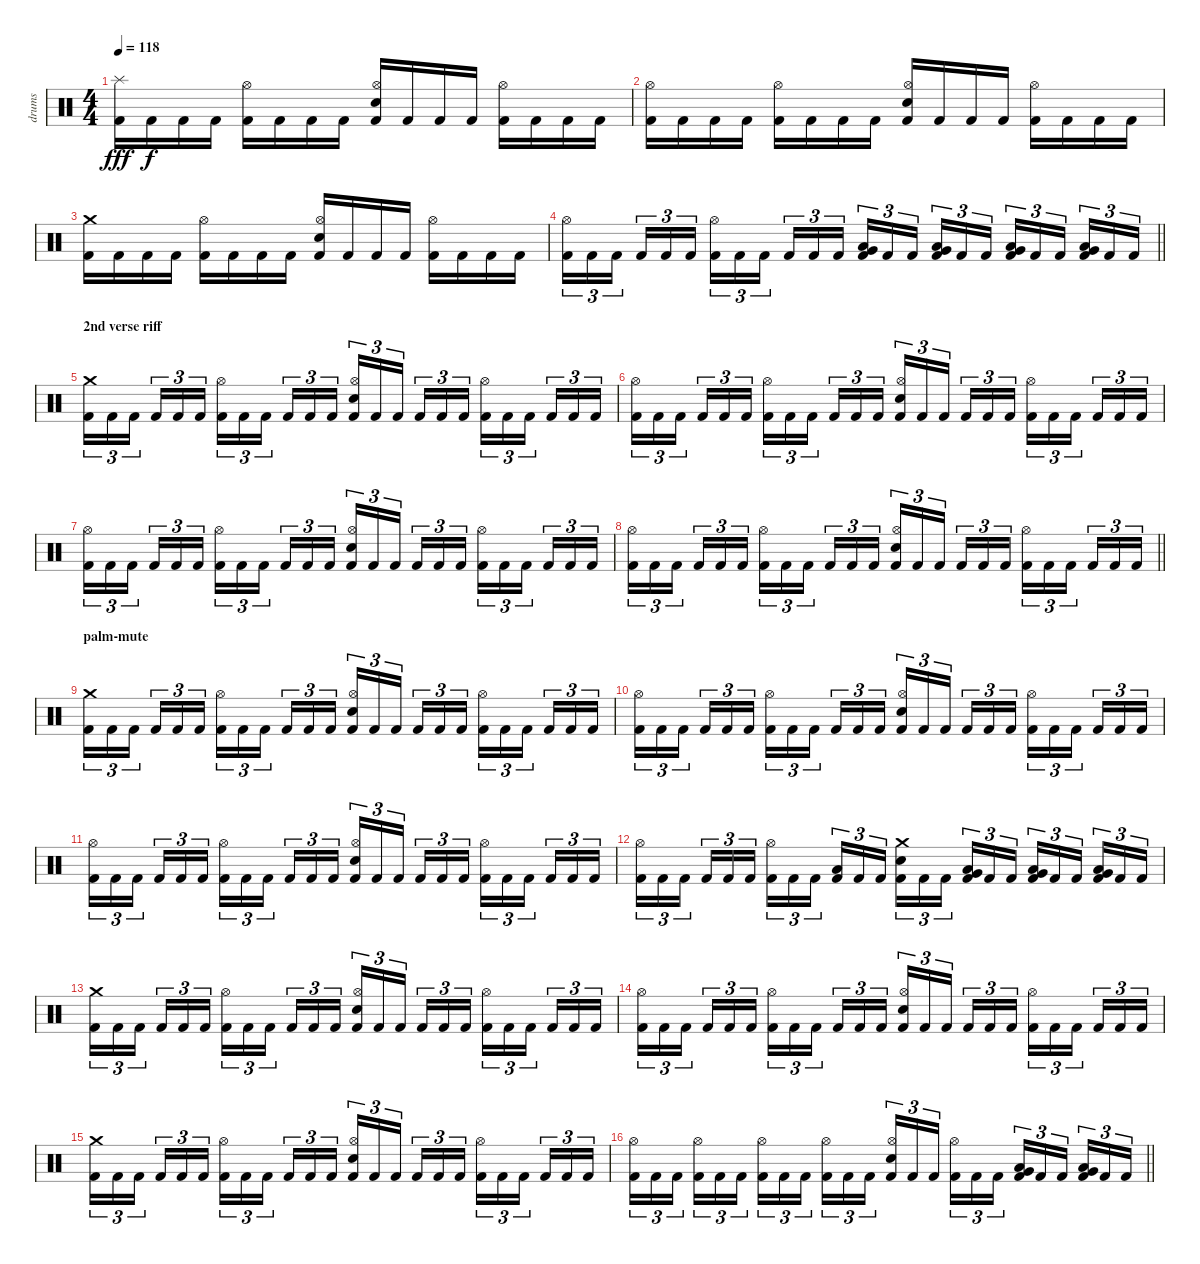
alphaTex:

\track ("drums" "drums") {instrument percussion}
\staff {score}
\articulation defaults
\ts (4 4)
\tempo 118
\clef neutral
\ks c
("Splash (hit)" "Kick (hit) 2").16{dy fff} "Kick (hit) 2".16{dy f} "Kick (hit) 2".16 "Kick (hit) 2".16 ("Hi-Hat (open)" "Kick (hit) 2").16 "Kick (hit) 2".16 "Kick (hit) 2".16 "Kick (hit) 2".16 ("Hi-Hat (open)" "Electric Snare (hit)" "Kick (hit) 2").16 "Kick (hit) 2".16 "Kick (hit) 2".16 "Kick (hit) 2".16 ("Hi-Hat (open)" "Kick (hit) 2").16 "Kick (hit) 2".16 "Kick (hit) 2".16 "Kick (hit) 2".16 |
("Hi-Hat (open)" "Kick (hit) 2").16 "Kick (hit) 2".16 "Kick (hit) 2".16 "Kick (hit) 2".16 ("Hi-Hat (open)" "Kick (hit) 2").16 "Kick (hit) 2".16 "Kick (hit) 2".16 "Kick (hit) 2".16 ("Hi-Hat (open)" "Electric Snare (hit)" "Kick (hit) 2").16 "Kick (hit) 2".16 "Kick (hit) 2".16 "Kick (hit) 2".16 ("Hi-Hat (open)" "Kick (hit) 2").16 "Kick (hit) 2".16 "Kick (hit) 2".16 "Kick (hit) 2".16 |
("Crash medium (hit)" "Kick (hit) 2").16 "Kick (hit) 2".16 "Kick (hit) 2".16 "Kick (hit) 2".16 ("Hi-Hat (open)" "Kick (hit) 2").16 "Kick (hit) 2".16 "Kick (hit) 2".16 "Kick (hit) 2".16 ("Hi-Hat (open)" "Electric Snare (hit)" "Kick (hit) 2").16 "Kick (hit) 2".16 "Kick (hit) 2".16 "Kick (hit) 2".16 ("Hi-Hat (open)" "Kick (hit) 2").16 "Kick (hit) 2".16 "Kick (hit) 2".16 "Kick (hit) 2".16 |
\barLineRight lightlight
("Hi-Hat (open)" "Kick (hit) 2").16{tu (3 2)} "Kick (hit) 2".16{tu (3 2)} "Kick (hit) 2".16{tu (3 2) beam splitsecondary} "Kick (hit) 2".16{tu (3 2)} "Kick (hit) 2".16{tu (3 2)} "Kick (hit) 2".16{tu (3 2)} ("Hi-Hat (open)" "Kick (hit) 2").16{tu (3 2)} "Kick (hit) 2".16{tu (3 2)} "Kick (hit) 2".16{tu (3 2) beam splitsecondary} "Kick (hit) 2".16{tu (3 2)} "Kick (hit) 2".16{tu (3 2)} "Kick (hit) 2".16{tu (3 2)} ("Low Tom (hit)" "Very Low Tom (hit)" "Kick (hit) 2").16{tu (3 2)} "Kick (hit) 2".16{tu (3 2)} "Kick (hit) 2".16{tu (3 2) beam splitsecondary} ("Low Tom (hit)" "Very Low Tom (hit)" "Kick (hit) 2").16{tu (3 2)} "Kick (hit) 2".16{tu (3 2)} "Kick (hit) 2".16{tu (3 2)} ("Low Tom (hit)" "Very Low Tom (hit)" "Kick (hit) 2").16{tu (3 2)} "Kick (hit) 2".16{tu (3 2)} "Kick (hit) 2".16{tu (3 2) beam splitsecondary} ("Low Tom (hit)" "Very Low Tom (hit)" "Kick (hit) 2").16{tu (3 2)} "Kick (hit) 2".16{tu (3 2)} "Kick (hit) 2".16{tu (3 2)} |
\section ("" "2nd verse riff")
("Crash medium (hit)" "Kick (hit) 2").16{tu (3 2)} "Kick (hit) 2".16{tu (3 2)} "Kick (hit) 2".16{tu (3 2) beam splitsecondary} "Kick (hit) 2".16{tu (3 2)} "Kick (hit) 2".16{tu (3 2)} "Kick (hit) 2".16{tu (3 2)} ("Hi-Hat (open)" "Kick (hit) 2").16{tu (3 2)} "Kick (hit) 2".16{tu (3 2)} "Kick (hit) 2".16{tu (3 2) beam splitsecondary} "Kick (hit) 2".16{tu (3 2)} "Kick (hit) 2".16{tu (3 2)} "Kick (hit) 2".16{tu (3 2)} ("Hi-Hat (open)" "Electric Snare (hit)" "Kick (hit) 2").16{tu (3 2)} "Kick (hit) 2".16{tu (3 2)} "Kick (hit) 2".16{tu (3 2) beam splitsecondary} "Kick (hit) 2".16{tu (3 2)} "Kick (hit) 2".16{tu (3 2)} "Kick (hit) 2".16{tu (3 2)} ("Hi-Hat (open)" "Kick (hit) 2").16{tu (3 2)} "Kick (hit) 2".16{tu (3 2)} "Kick (hit) 2".16{tu (3 2) beam splitsecondary} "Kick (hit) 2".16{tu (3 2)} "Kick (hit) 2".16{tu (3 2)} "Kick (hit) 2".16{tu (3 2)} |
("Hi-Hat (open)" "Kick (hit) 2").16{tu (3 2)} "Kick (hit) 2".16{tu (3 2)} "Kick (hit) 2".16{tu (3 2) beam splitsecondary} "Kick (hit) 2".16{tu (3 2)} "Kick (hit) 2".16{tu (3 2)} "Kick (hit) 2".16{tu (3 2)} ("Hi-Hat (open)" "Kick (hit) 2").16{tu (3 2)} "Kick (hit) 2".16{tu (3 2)} "Kick (hit) 2".16{tu (3 2) beam splitsecondary} "Kick (hit) 2".16{tu (3 2)} "Kick (hit) 2".16{tu (3 2)} "Kick (hit) 2".16{tu (3 2)} ("Hi-Hat (open)" "Electric Snare (hit)" "Kick (hit) 2").16{tu (3 2)} "Kick (hit) 2".16{tu (3 2)} "Kick (hit) 2".16{tu (3 2) beam splitsecondary} "Kick (hit) 2".16{tu (3 2)} "Kick (hit) 2".16{tu (3 2)} "Kick (hit) 2".16{tu (3 2)} ("Hi-Hat (open)" "Kick (hit) 2").16{tu (3 2)} "Kick (hit) 2".16{tu (3 2)} "Kick (hit) 2".16{tu (3 2) beam splitsecondary} "Kick (hit) 2".16{tu (3 2)} "Kick (hit) 2".16{tu (3 2)} "Kick (hit) 2".16{tu (3 2)} |
("Hi-Hat (open)" "Kick (hit) 2").16{tu (3 2)} "Kick (hit) 2".16{tu (3 2)} "Kick (hit) 2".16{tu (3 2) beam splitsecondary} "Kick (hit) 2".16{tu (3 2)} "Kick (hit) 2".16{tu (3 2)} "Kick (hit) 2".16{tu (3 2)} ("Hi-Hat (open)" "Kick (hit) 2").16{tu (3 2)} "Kick (hit) 2".16{tu (3 2)} "Kick (hit) 2".16{tu (3 2) beam splitsecondary} "Kick (hit) 2".16{tu (3 2)} "Kick (hit) 2".16{tu (3 2)} "Kick (hit) 2".16{tu (3 2)} ("Hi-Hat (open)" "Electric Snare (hit)" "Kick (hit) 2").16{tu (3 2)} "Kick (hit) 2".16{tu (3 2)} "Kick (hit) 2".16{tu (3 2) beam splitsecondary} "Kick (hit) 2".16{tu (3 2)} "Kick (hit) 2".16{tu (3 2)} "Kick (hit) 2".16{tu (3 2)} ("Hi-Hat (open)" "Kick (hit) 2").16{tu (3 2)} "Kick (hit) 2".16{tu (3 2)} "Kick (hit) 2".16{tu (3 2) beam splitsecondary} "Kick (hit) 2".16{tu (3 2)} "Kick (hit) 2".16{tu (3 2)} "Kick (hit) 2".16{tu (3 2)} |
\barLineRight lightlight
("Hi-Hat (open)" "Kick (hit) 2").16{tu (3 2)} "Kick (hit) 2".16{tu (3 2)} "Kick (hit) 2".16{tu (3 2) beam splitsecondary} "Kick (hit) 2".16{tu (3 2)} "Kick (hit) 2".16{tu (3 2)} "Kick (hit) 2".16{tu (3 2)} ("Hi-Hat (open)" "Kick (hit) 2").16{tu (3 2)} "Kick (hit) 2".16{tu (3 2)} "Kick (hit) 2".16{tu (3 2) beam splitsecondary} "Kick (hit) 2".16{tu (3 2)} "Kick (hit) 2".16{tu (3 2)} "Kick (hit) 2".16{tu (3 2)} ("Hi-Hat (open)" "Electric Snare (hit)" "Kick (hit) 2").16{tu (3 2)} "Kick (hit) 2".16{tu (3 2)} "Kick (hit) 2".16{tu (3 2) beam splitsecondary} "Kick (hit) 2".16{tu (3 2)} "Kick (hit) 2".16{tu (3 2)} "Kick (hit) 2".16{tu (3 2)} ("Hi-Hat (open)" "Kick (hit) 2").16{tu (3 2)} "Kick (hit) 2".16{tu (3 2)} "Kick (hit) 2".16{tu (3 2) beam splitsecondary} "Kick (hit) 2".16{tu (3 2)} "Kick (hit) 2".16{tu (3 2)} "Kick (hit) 2".16{tu (3 2)} |
\section ("" "palm-mute")
("Crash medium (hit)" "Kick (hit) 2").16{tu (3 2)} "Kick (hit) 2".16{tu (3 2)} "Kick (hit) 2".16{tu (3 2) beam splitsecondary} "Kick (hit) 2".16{tu (3 2)} "Kick (hit) 2".16{tu (3 2)} "Kick (hit) 2".16{tu (3 2)} ("Hi-Hat (open)" "Kick (hit) 2").16{tu (3 2)} "Kick (hit) 2".16{tu (3 2)} "Kick (hit) 2".16{tu (3 2) beam splitsecondary} "Kick (hit) 2".16{tu (3 2)} "Kick (hit) 2".16{tu (3 2)} "Kick (hit) 2".16{tu (3 2)} ("Hi-Hat (open)" "Electric Snare (hit)" "Kick (hit) 2").16{tu (3 2)} "Kick (hit) 2".16{tu (3 2)} "Kick (hit) 2".16{tu (3 2) beam splitsecondary} "Kick (hit) 2".16{tu (3 2)} "Kick (hit) 2".16{tu (3 2)} "Kick (hit) 2".16{tu (3 2)} ("Hi-Hat (open)" "Kick (hit) 2").16{tu (3 2)} "Kick (hit) 2".16{tu (3 2)} "Kick (hit) 2".16{tu (3 2) beam splitsecondary} "Kick (hit) 2".16{tu (3 2)} "Kick (hit) 2".16{tu (3 2)} "Kick (hit) 2".16{tu (3 2)} |
("Hi-Hat (open)" "Kick (hit) 2").16{tu (3 2)} "Kick (hit) 2".16{tu (3 2)} "Kick (hit) 2".16{tu (3 2) beam splitsecondary} "Kick (hit) 2".16{tu (3 2)} "Kick (hit) 2".16{tu (3 2)} "Kick (hit) 2".16{tu (3 2)} ("Hi-Hat (open)" "Kick (hit) 2").16{tu (3 2)} "Kick (hit) 2".16{tu (3 2)} "Kick (hit) 2".16{tu (3 2) beam splitsecondary} "Kick (hit) 2".16{tu (3 2)} "Kick (hit) 2".16{tu (3 2)} "Kick (hit) 2".16{tu (3 2)} ("Hi-Hat (open)" "Electric Snare (hit)" "Kick (hit) 2").16{tu (3 2)} "Kick (hit) 2".16{tu (3 2)} "Kick (hit) 2".16{tu (3 2) beam splitsecondary} "Kick (hit) 2".16{tu (3 2)} "Kick (hit) 2".16{tu (3 2)} "Kick (hit) 2".16{tu (3 2)} ("Hi-Hat (open)" "Kick (hit) 2").16{tu (3 2)} "Kick (hit) 2".16{tu (3 2)} "Kick (hit) 2".16{tu (3 2) beam splitsecondary} "Kick (hit) 2".16{tu (3 2)} "Kick (hit) 2".16{tu (3 2)} "Kick (hit) 2".16{tu (3 2)} |
("Hi-Hat (open)" "Kick (hit) 2").16{tu (3 2)} "Kick (hit) 2".16{tu (3 2)} "Kick (hit) 2".16{tu (3 2) beam splitsecondary} "Kick (hit) 2".16{tu (3 2)} "Kick (hit) 2".16{tu (3 2)} "Kick (hit) 2".16{tu (3 2)} ("Hi-Hat (open)" "Kick (hit) 2").16{tu (3 2)} "Kick (hit) 2".16{tu (3 2)} "Kick (hit) 2".16{tu (3 2) beam splitsecondary} "Kick (hit) 2".16{tu (3 2)} "Kick (hit) 2".16{tu (3 2)} "Kick (hit) 2".16{tu (3 2)} ("Hi-Hat (open)" "Electric Snare (hit)" "Kick (hit) 2").16{tu (3 2)} "Kick (hit) 2".16{tu (3 2)} "Kick (hit) 2".16{tu (3 2) beam splitsecondary} "Kick (hit) 2".16{tu (3 2)} "Kick (hit) 2".16{tu (3 2)} "Kick (hit) 2".16{tu (3 2)} ("Hi-Hat (open)" "Kick (hit) 2").16{tu (3 2)} "Kick (hit) 2".16{tu (3 2)} "Kick (hit) 2".16{tu (3 2) beam splitsecondary} "Kick (hit) 2".16{tu (3 2)} "Kick (hit) 2".16{tu (3 2)} "Kick (hit) 2".16{tu (3 2)} |
("Hi-Hat (open)" "Kick (hit) 2").16{tu (3 2)} "Kick (hit) 2".16{tu (3 2)} "Kick (hit) 2".16{tu (3 2) beam splitsecondary} "Kick (hit) 2".16{tu (3 2)} "Kick (hit) 2".16{tu (3 2)} "Kick (hit) 2".16{tu (3 2)} ("Hi-Hat (open)" "Kick (hit) 2").16{tu (3 2)} "Kick (hit) 2".16{tu (3 2)} "Kick (hit) 2".16{tu (3 2) beam splitsecondary} ("Low Tom (hit)" "Kick (hit) 2").16{tu (3 2)} "Kick (hit) 2".16{tu (3 2)} "Kick (hit) 2".16{tu (3 2)} ("Crash medium (hit)" "Electric Snare (hit)" "Kick (hit) 2").16{tu (3 2)} "Kick (hit) 2".16{tu (3 2)} "Kick (hit) 2".16{tu (3 2) beam splitsecondary} ("Low Tom (hit)" "Very Low Tom (hit)" "Kick (hit) 2").16{tu (3 2)} "Kick (hit) 2".16{tu (3 2)} "Kick (hit) 2".16{tu (3 2)} ("Low Tom (hit)" "Very Low Tom (hit)" "Kick (hit) 2").16{tu (3 2)} "Kick (hit) 2".16{tu (3 2)} "Kick (hit) 2".16{tu (3 2) beam splitsecondary} ("Low Tom (hit)" "Very Low Tom (hit)" "Kick (hit) 2").16{tu (3 2)} "Kick (hit) 2".16{tu (3 2)} "Kick (hit) 2".16{tu (3 2)} |
("Crash medium (hit)" "Kick (hit) 2").16{tu (3 2)} "Kick (hit) 2".16{tu (3 2)} "Kick (hit) 2".16{tu (3 2) beam splitsecondary} "Kick (hit) 2".16{tu (3 2)} "Kick (hit) 2".16{tu (3 2)} "Kick (hit) 2".16{tu (3 2)} ("Hi-Hat (open)" "Kick (hit) 2").16{tu (3 2)} "Kick (hit) 2".16{tu (3 2)} "Kick (hit) 2".16{tu (3 2) beam splitsecondary} "Kick (hit) 2".16{tu (3 2)} "Kick (hit) 2".16{tu (3 2)} "Kick (hit) 2".16{tu (3 2)} ("Hi-Hat (open)" "Electric Snare (hit)" "Kick (hit) 2").16{tu (3 2)} "Kick (hit) 2".16{tu (3 2)} "Kick (hit) 2".16{tu (3 2) beam splitsecondary} "Kick (hit) 2".16{tu (3 2)} "Kick (hit) 2".16{tu (3 2)} "Kick (hit) 2".16{tu (3 2)} ("Hi-Hat (open)" "Kick (hit) 2").16{tu (3 2)} "Kick (hit) 2".16{tu (3 2)} "Kick (hit) 2".16{tu (3 2) beam splitsecondary} "Kick (hit) 2".16{tu (3 2)} "Kick (hit) 2".16{tu (3 2)} "Kick (hit) 2".16{tu (3 2)} |
("Hi-Hat (open)" "Kick (hit) 2").16{tu (3 2)} "Kick (hit) 2".16{tu (3 2)} "Kick (hit) 2".16{tu (3 2) beam splitsecondary} "Kick (hit) 2".16{tu (3 2)} "Kick (hit) 2".16{tu (3 2)} "Kick (hit) 2".16{tu (3 2)} ("Hi-Hat (open)" "Kick (hit) 2").16{tu (3 2)} "Kick (hit) 2".16{tu (3 2)} "Kick (hit) 2".16{tu (3 2) beam splitsecondary} "Kick (hit) 2".16{tu (3 2)} "Kick (hit) 2".16{tu (3 2)} "Kick (hit) 2".16{tu (3 2)} ("Hi-Hat (open)" "Electric Snare (hit)" "Kick (hit) 2").16{tu (3 2)} "Kick (hit) 2".16{tu (3 2)} "Kick (hit) 2".16{tu (3 2) beam splitsecondary} "Kick (hit) 2".16{tu (3 2)} "Kick (hit) 2".16{tu (3 2)} "Kick (hit) 2".16{tu (3 2)} ("Hi-Hat (open)" "Kick (hit) 2").16{tu (3 2)} "Kick (hit) 2".16{tu (3 2)} "Kick (hit) 2".16{tu (3 2) beam splitsecondary} "Kick (hit) 2".16{tu (3 2)} "Kick (hit) 2".16{tu (3 2)} "Kick (hit) 2".16{tu (3 2)} |
("Crash medium (hit)" "Kick (hit) 2").16{tu (3 2)} "Kick (hit) 2".16{tu (3 2)} "Kick (hit) 2".16{tu (3 2) beam splitsecondary} "Kick (hit) 2".16{tu (3 2)} "Kick (hit) 2".16{tu (3 2)} "Kick (hit) 2".16{tu (3 2)} ("Hi-Hat (open)" "Kick (hit) 2").16{tu (3 2)} "Kick (hit) 2".16{tu (3 2)} "Kick (hit) 2".16{tu (3 2) beam splitsecondary} "Kick (hit) 2".16{tu (3 2)} "Kick (hit) 2".16{tu (3 2)} "Kick (hit) 2".16{tu (3 2)} ("Hi-Hat (open)" "Electric Snare (hit)" "Kick (hit) 2").16{tu (3 2)} "Kick (hit) 2".16{tu (3 2)} "Kick (hit) 2".16{tu (3 2) beam splitsecondary} "Kick (hit) 2".16{tu (3 2)} "Kick (hit) 2".16{tu (3 2)} "Kick (hit) 2".16{tu (3 2)} ("Hi-Hat (open)" "Kick (hit) 2").16{tu (3 2)} "Kick (hit) 2".16{tu (3 2)} "Kick (hit) 2".16{tu (3 2) beam splitsecondary} "Kick (hit) 2".16{tu (3 2)} "Kick (hit) 2".16{tu (3 2)} "Kick (hit) 2".16{tu (3 2)} |
\barLineRight lightlight
("Hi-Hat (open)" "Kick (hit) 2").16{tu (3 2)} "Kick (hit) 2".16{tu (3 2)} "Kick (hit) 2".16{tu (3 2) beam splitsecondary} ("Hi-Hat (open)" "Kick (hit) 2").16{tu (3 2)} "Kick (hit) 2".16{tu (3 2)} "Kick (hit) 2".16{tu (3 2)} ("Hi-Hat (open)" "Kick (hit) 2").16{tu (3 2)} "Kick (hit) 2".16{tu (3 2)} "Kick (hit) 2".16{tu (3 2) beam splitsecondary} ("Hi-Hat (open)" "Kick (hit) 2").16{tu (3 2)} "Kick (hit) 2".16{tu (3 2)} "Kick (hit) 2".16{tu (3 2)} ("Hi-Hat (open)" "Electric Snare (hit)" "Kick (hit) 2").16{tu (3 2)} "Kick (hit) 2".16{tu (3 2)} "Kick (hit) 2".16{tu (3 2) beam splitsecondary} ("Hi-Hat (open)" "Kick (hit) 2").16{tu (3 2)} "Kick (hit) 2".16{tu (3 2)} "Kick (hit) 2".16{tu (3 2)} ("Low Tom (hit)" "Very Low Tom (hit)" "Kick (hit) 2").16{tu (3 2)} "Kick (hit) 2".16{tu (3 2)} "Kick (hit) 2".16{tu (3 2) beam splitsecondary} ("Low Tom (hit)" "Very Low Tom (hit)" "Kick (hit) 2").16{tu (3 2)} "Kick (hit) 2".16{tu (3 2)} "Kick (hit) 2".16{tu (3 2)}
